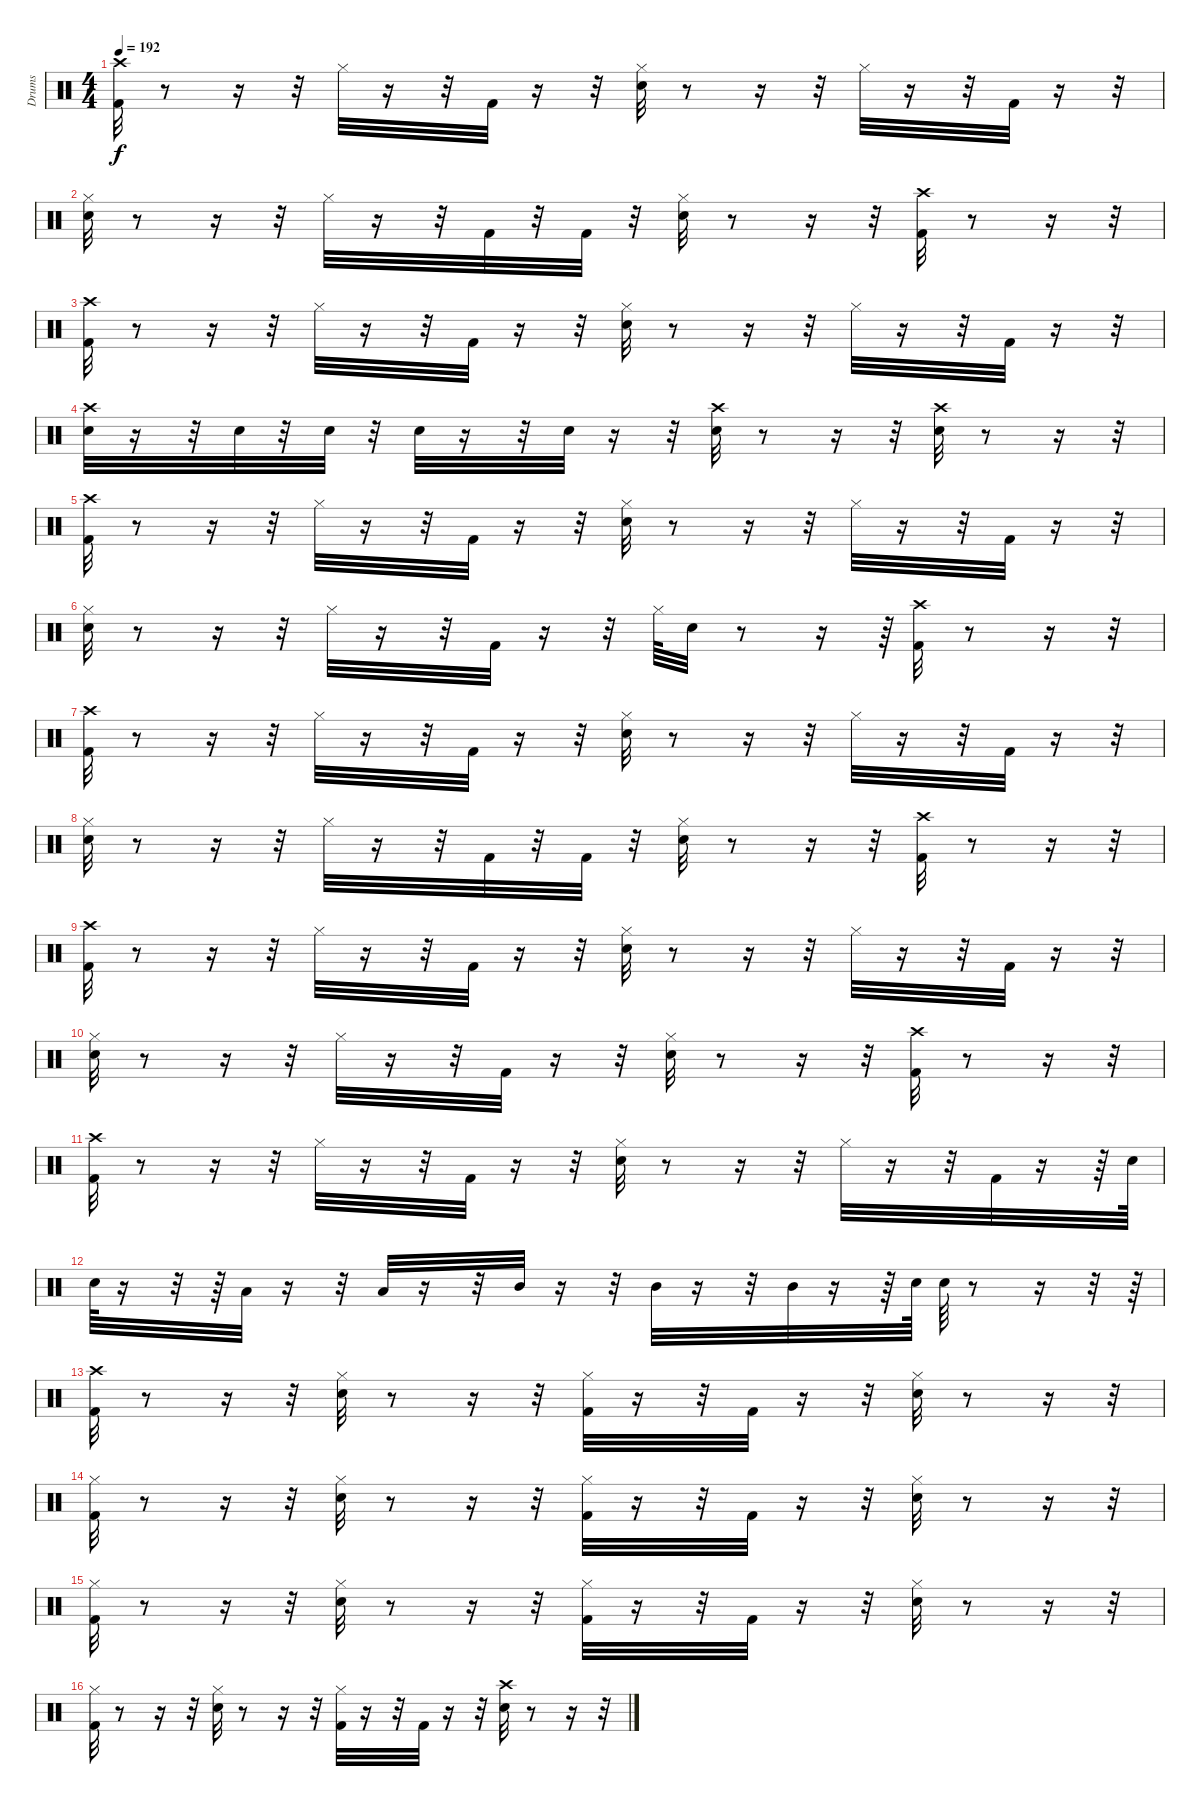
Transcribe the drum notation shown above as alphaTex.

\track ("Drums" "Drums") {instrument percussion}
\staff {score}
\articulation defaults
\ts (4 4)
\tempo 192
\clef neutral
\ks c
("Kick (hit) 2" "Crash high (hit)").32{dy f} r.8 r.16 r.32 "Hi-Hat (closed)".32 r.16 r.32 "Kick (hit) 2".32 r.16 r.32 ("Snare (hit) 2" "Hi-Hat (closed)").32 r.8 r.16 r.32 "Hi-Hat (closed)".32 r.16 r.32 "Kick (hit) 2".32 r.16 r.32 |
("Snare (hit) 2" "Hi-Hat (closed)").32 r.8 r.16 r.32 "Hi-Hat (closed)".32 r.16 r.32 "Kick (hit) 2".32 r.32 "Kick (hit) 2".32 r.32 ("Snare (hit) 2" "Hi-Hat (closed)").32 r.8 r.16 r.32 ("Crash high (hit)" "Kick (hit) 2").32 r.8 r.16 r.32 |
("Kick (hit) 2" "Crash high (hit)").32 r.8 r.16 r.32 "Hi-Hat (closed)".32 r.16 r.32 "Kick (hit) 2".32 r.16 r.32 ("Snare (hit) 2" "Hi-Hat (closed)").32 r.8 r.16 r.32 "Hi-Hat (closed)".32 r.16 r.32 "Kick (hit) 2".32 r.16 r.32 |
("Snare (hit) 2" "Crash high (hit)").32 r.16 r.32 "Snare (hit) 2".32 r.32 "Snare (hit) 2".32 r.32 "Snare (hit) 2".32 r.16 r.32 "Snare (hit) 2".32 r.16 r.32 ("Crash high (hit)" "Snare (hit) 2").32 r.8 r.16 r.32 ("Crash high (hit)" "Snare (hit) 2").32 r.8 r.16 r.32 |
("Kick (hit) 2" "Crash high (hit)").32 r.8 r.16 r.32 "Hi-Hat (closed)".32 r.16 r.32 "Kick (hit) 2".32 r.16 r.32 ("Snare (hit) 2" "Hi-Hat (closed)").32 r.8 r.16 r.32 "Hi-Hat (closed)".32 r.16 r.32 "Kick (hit) 2".32 r.16 r.32 |
("Hi-Hat (closed)" "Snare (hit) 2").32 r.8 r.16 r.32 "Hi-Hat (closed)".32 r.16 r.32 "Kick (hit) 2".32 r.16 r.32 "Hi-Hat (closed)".64 "Snare (hit) 2".32 r.8 r.16 r.64 ("Crash high (hit)" "Kick (hit) 2").32 r.8 r.16 r.32 |
("Kick (hit) 2" "Crash high (hit)").32 r.8 r.16 r.32 "Hi-Hat (closed)".32 r.16 r.32 "Kick (hit) 2".32 r.16 r.32 ("Snare (hit) 2" "Hi-Hat (closed)").32 r.8 r.16 r.32 "Hi-Hat (closed)".32 r.16 r.32 "Kick (hit) 2".32 r.16 r.32 |
("Hi-Hat (closed)" "Snare (hit) 2").32 r.8 r.16 r.32 "Hi-Hat (closed)".32 r.16 r.32 "Kick (hit) 2".32 r.32 "Kick (hit) 2".32 r.32 ("Snare (hit) 2" "Hi-Hat (closed)").32 r.8 r.16 r.32 ("Crash high (hit)" "Kick (hit) 2").32 r.8 r.16 r.32 |
("Kick (hit) 2" "Crash high (hit)").32 r.8 r.16 r.32 "Hi-Hat (closed)".32 r.16 r.32 "Kick (hit) 2".32 r.16 r.32 ("Snare (hit) 2" "Hi-Hat (closed)").32 r.8 r.16 r.32 "Hi-Hat (closed)".32 r.16 r.32 "Kick (hit) 2".32 r.16 r.32 |
("Hi-Hat (closed)" "Snare (hit) 2").32 r.8 r.16 r.32 "Hi-Hat (closed)".32 r.16 r.32 "Kick (hit) 2".32 r.16 r.32 ("Snare (hit) 2" "Hi-Hat (closed)").32 r.8 r.16 r.32 ("Crash high (hit)" "Kick (hit) 2").32 r.8 r.16 r.32 |
("Kick (hit) 2" "Crash high (hit)").32 r.8 r.16 r.32 "Hi-Hat (closed)".32 r.16 r.32 "Kick (hit) 2".32 r.16 r.32 ("Snare (hit) 2" "Hi-Hat (closed)").32 r.8 r.16 r.32 "Hi-Hat (closed)".32 r.16 r.32 "Kick (hit) 2".32 r.16 r.64 "Snare (hit) 2".64 |
"Snare (hit) 2".64 r.16 r.32 r.64 "Low Tom (hit)".32 r.16 r.32 "Low Tom (hit)".32 r.16 r.32 "Mid Tom (hit)".32 r.16 r.32 "Mid Tom (hit)".32 r.16 r.32 "Mid Tom (hit)".32 r.16 r.64 "Snare (hit) 2".64 "Snare (hit) 2".64 r.8 r.16 r.32 r.64 |
("Kick (hit) 2" "Crash high (hit)").32 r.8 r.16 r.32 ("Hi-Hat (closed)" "Snare (hit) 2").32 r.8 r.16 r.32 ("Kick (hit) 2" "Hi-Hat (closed)").32 r.16 r.32 "Kick (hit) 2".32 r.16 r.32 ("Snare (hit) 2" "Hi-Hat (closed)").32 r.8 r.16 r.32 |
("Kick (hit) 2" "Hi-Hat (closed)").32 r.8 r.16 r.32 ("Snare (hit) 2" "Hi-Hat (closed)").32 r.8 r.16 r.32 ("Kick (hit) 2" "Hi-Hat (closed)").32 r.16 r.32 "Kick (hit) 2".32 r.16 r.32 ("Snare (hit) 2" "Hi-Hat (closed)").32 r.8 r.16 r.32 |
("Kick (hit) 2" "Hi-Hat (closed)").32 r.8 r.16 r.32 ("Snare (hit) 2" "Hi-Hat (closed)").32 r.8 r.16 r.32 ("Kick (hit) 2" "Hi-Hat (closed)").32 r.16 r.32 "Kick (hit) 2".32 r.16 r.32 ("Snare (hit) 2" "Hi-Hat (closed)").32 r.8 r.16 r.32 |
("Kick (hit) 2" "Hi-Hat (closed)").32 r.8 r.16 r.32 ("Snare (hit) 2" "Hi-Hat (closed)").32 r.8 r.16 r.32 ("Kick (hit) 2" "Hi-Hat (closed)").32 r.16 r.32 "Kick (hit) 2".32 r.16 r.32 ("Crash high (hit)" "Snare (hit) 2").32 r.8 r.16 r.32
